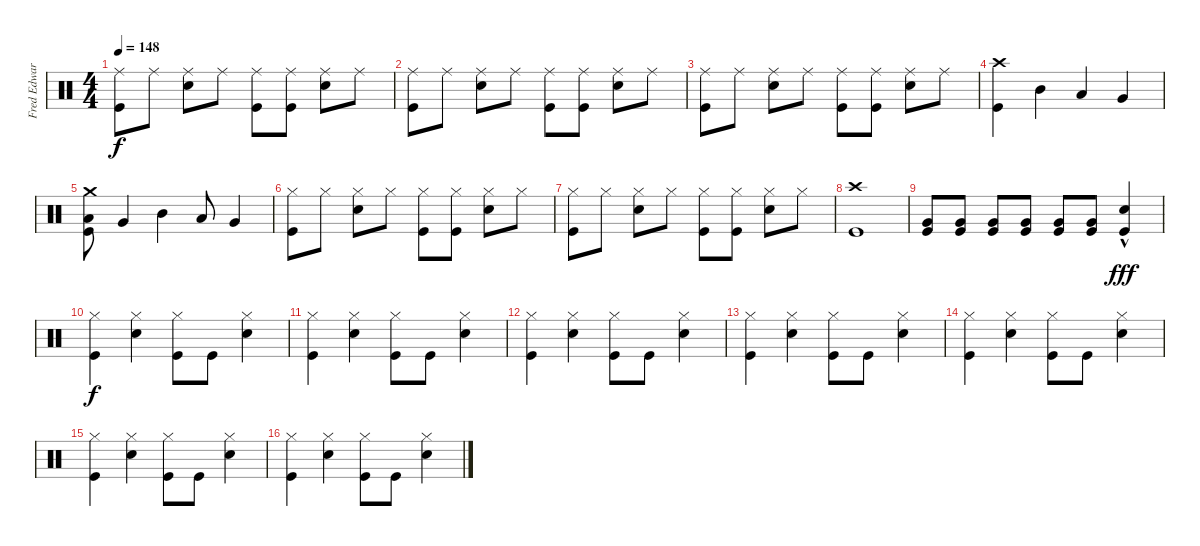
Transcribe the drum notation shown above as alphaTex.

\track ("Fred Edwards Drums" "Fred Edwar") {instrument percussion}
\staff {score}
\articulation defaults
\ts (4 4)
\tempo 148
\clef neutral
\ks c
("Ride (middle)" "Kick (hit)").8{dy f} "Ride (middle)".8 ("Ride (middle)" "Snare (hit) 2").8 "Ride (middle)".8 ("Ride (middle)" "Kick (hit)").8 ("Ride (middle)" "Kick (hit)").8 ("Ride (middle)" "Snare (hit) 2").8 "Ride (middle)".8 |
("Ride (middle)" "Kick (hit)").8 "Ride (middle)".8 ("Ride (middle)" "Snare (hit) 2").8 "Ride (middle)".8 ("Ride (middle)" "Kick (hit)").8 ("Ride (middle)" "Kick (hit)").8 ("Ride (middle)" "Snare (hit) 2").8 "Ride (middle)".8 |
("Ride (middle)" "Kick (hit)").8 "Ride (middle)".8 ("Ride (middle)" "Snare (hit) 2").8 "Ride (middle)".8 ("Ride (middle)" "Kick (hit)").8 ("Ride (middle)" "Kick (hit)").8 ("Ride (middle)" "Snare (hit) 2").8 "Ride (middle)".8 |
("Crash high (hit)" "Kick (hit)").4 "Mid Tom (hit)".4 "Low Tom (hit)".4 "Very Low Tom (hit)".4 |
("Crash medium (hit)" "Low Tom (hit)" "Kick (hit)").8 "Very Low Tom (hit)".4 "Mid Tom (hit)".4 "Low Tom (hit)".8 "Very Low Tom (hit)".4 |
("Hi-Hat (closed)" "Kick (hit)").8 "Hi-Hat (closed)".8 ("Hi-Hat (closed)" "Snare (hit) 2").8 "Hi-Hat (closed)".8 ("Hi-Hat (closed)" "Kick (hit)").8 ("Hi-Hat (closed)" "Kick (hit)").8 ("Hi-Hat (closed)" "Snare (hit) 2").8 "Hi-Hat (closed)".8 |
("Hi-Hat (closed)" "Kick (hit)").8 "Hi-Hat (closed)".8 ("Hi-Hat (closed)" "Snare (hit) 2").8 "Hi-Hat (closed)".8 ("Hi-Hat (closed)" "Kick (hit)").8 ("Hi-Hat (closed)" "Kick (hit)").8 ("Hi-Hat (closed)" "Snare (hit) 2").8 "Hi-Hat (closed)".8 |
("Crash high (hit)" "Kick (hit)").1 |
("Very Low Tom (hit)" "Kick (hit)").8 ("Very Low Tom (hit)" "Kick (hit)").8 ("Very Low Tom (hit)" "Kick (hit)").8 ("Very Low Tom (hit)" "Kick (hit)").8 ("Very Low Tom (hit)" "Kick (hit)").8 ("Very Low Tom (hit)" "Kick (hit)").8 ("Snare (hit) 2"{hac} "Kick (hit)").4{dy fff} |
("Hi-Hat (closed)" "Kick (hit)").4{dy f} ("Hi-Hat (closed)" "Snare (hit) 2").4 ("Hi-Hat (closed)" "Kick (hit)").8 "Kick (hit)".8 ("Hi-Hat (closed)" "Snare (hit) 2").4 |
("Hi-Hat (closed)" "Kick (hit)").4 ("Hi-Hat (closed)" "Snare (hit) 2").4 ("Hi-Hat (closed)" "Kick (hit)").8 "Kick (hit)".8 ("Hi-Hat (closed)" "Snare (hit) 2").4 |
("Hi-Hat (closed)" "Kick (hit)").4 ("Hi-Hat (closed)" "Snare (hit) 2").4 ("Hi-Hat (closed)" "Kick (hit)").8 "Kick (hit)".8 ("Hi-Hat (closed)" "Snare (hit) 2").4 |
("Hi-Hat (closed)" "Kick (hit)").4 ("Hi-Hat (closed)" "Snare (hit) 2").4 ("Hi-Hat (closed)" "Kick (hit)").8 "Kick (hit)".8 ("Hi-Hat (closed)" "Snare (hit) 2").4 |
("Hi-Hat (closed)" "Kick (hit)").4 ("Hi-Hat (closed)" "Snare (hit) 2").4 ("Hi-Hat (closed)" "Kick (hit)").8 "Kick (hit)".8 ("Hi-Hat (closed)" "Snare (hit) 2").4 |
("Hi-Hat (closed)" "Kick (hit)").4 ("Hi-Hat (closed)" "Snare (hit) 2").4 ("Hi-Hat (closed)" "Kick (hit)").8 "Kick (hit)".8 ("Hi-Hat (closed)" "Snare (hit) 2").4 |
("Hi-Hat (closed)" "Kick (hit)").4 ("Hi-Hat (closed)" "Snare (hit) 2").4 ("Hi-Hat (closed)" "Kick (hit)").8 "Kick (hit)".8 ("Hi-Hat (closed)" "Snare (hit) 2").4
